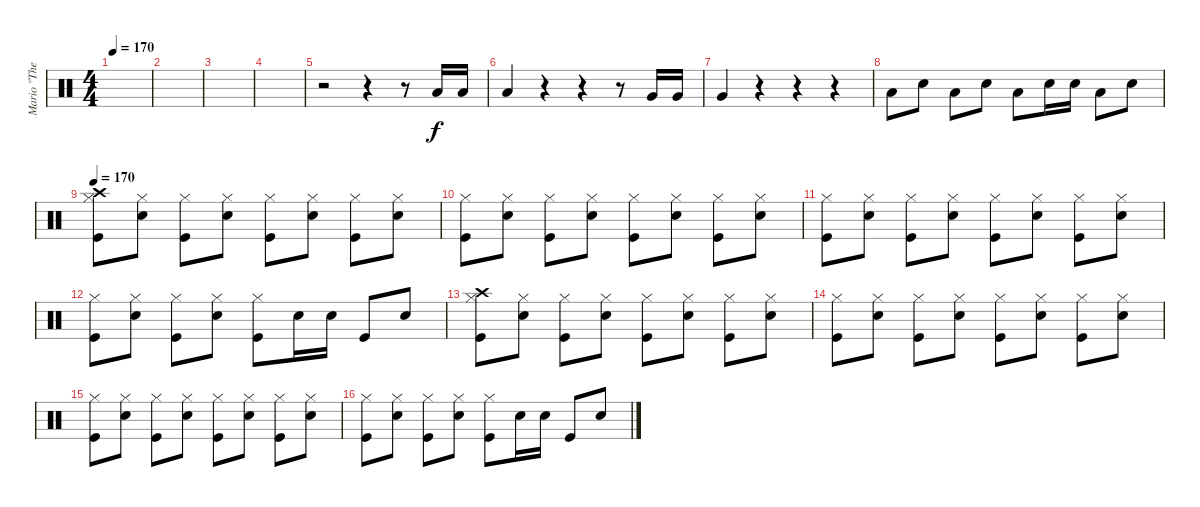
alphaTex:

\track ("Mario \"The Dremmel\" Hirt" "Mario \"The") {instrument percussion}
\staff {score}
\articulation defaults
\ts (4 4)
\tempo 170
\tempo 140
\tempo 170
\clef neutral
\ks c
|
|
|
|
r.2 r.4 r.8 "Low Tom (hit)".16 "Low Tom (hit)".16 |
"Low Tom (hit)".4 r.4 r.4 r.8 "Very Low Tom (hit)".16 "Very Low Tom (hit)".16 |
"Very Low Tom (hit)".4 r.4 r.4 r.4 |
"Low Floor Tom (hit)".8 "Electric Snare (hit)".8 "Low Floor Tom (hit)".8 "Electric Snare (hit)".8 "Low Floor Tom (hit)".8 "Electric Snare (hit)".16 "Electric Snare (hit)".16 "Low Floor Tom (hit)".8 "Electric Snare (hit)".8 |
\tempo 170
("Crash high (hit)" "Hi-Hat (closed)" "Kick (hit)").8 ("Hi-Hat (closed)" "Electric Snare (hit)").8 ("Hi-Hat (closed)" "Kick (hit)").8 ("Hi-Hat (closed)" "Electric Snare (hit)").8 ("Hi-Hat (closed)" "Kick (hit)").8 ("Hi-Hat (closed)" "Electric Snare (hit)").8 ("Hi-Hat (closed)" "Kick (hit)").8 ("Hi-Hat (closed)" "Electric Snare (hit)").8 |
("Hi-Hat (closed)" "Kick (hit)").8 ("Hi-Hat (closed)" "Electric Snare (hit)").8 ("Hi-Hat (closed)" "Kick (hit)").8 ("Hi-Hat (closed)" "Electric Snare (hit)").8 ("Hi-Hat (closed)" "Kick (hit)").8 ("Hi-Hat (closed)" "Electric Snare (hit)").8 ("Hi-Hat (closed)" "Kick (hit)").8 ("Hi-Hat (closed)" "Electric Snare (hit)").8 |
("Hi-Hat (closed)" "Kick (hit)").8 ("Hi-Hat (closed)" "Electric Snare (hit)").8 ("Hi-Hat (closed)" "Kick (hit)").8 ("Hi-Hat (closed)" "Electric Snare (hit)").8 ("Hi-Hat (closed)" "Kick (hit)").8 ("Hi-Hat (closed)" "Electric Snare (hit)").8 ("Hi-Hat (closed)" "Kick (hit)").8 ("Hi-Hat (closed)" "Electric Snare (hit)").8 |
("Hi-Hat (closed)" "Kick (hit)").8 ("Hi-Hat (closed)" "Electric Snare (hit)").8 ("Hi-Hat (closed)" "Kick (hit)").8 ("Hi-Hat (closed)" "Electric Snare (hit)").8 ("Hi-Hat (closed)" "Kick (hit)").8 "Electric Snare (hit)".16 "Electric Snare (hit)".16 "Kick (hit)".8 "Electric Snare (hit)".8 |
("Crash high (hit)" "Hi-Hat (closed)" "Kick (hit)").8 ("Hi-Hat (closed)" "Electric Snare (hit)").8 ("Hi-Hat (closed)" "Kick (hit)").8 ("Hi-Hat (closed)" "Electric Snare (hit)").8 ("Hi-Hat (closed)" "Kick (hit)").8 ("Hi-Hat (closed)" "Electric Snare (hit)").8 ("Hi-Hat (closed)" "Kick (hit)").8 ("Hi-Hat (closed)" "Electric Snare (hit)").8 |
("Hi-Hat (closed)" "Kick (hit)").8 ("Hi-Hat (closed)" "Electric Snare (hit)").8 ("Hi-Hat (closed)" "Kick (hit)").8 ("Hi-Hat (closed)" "Electric Snare (hit)").8 ("Hi-Hat (closed)" "Kick (hit)").8 ("Hi-Hat (closed)" "Electric Snare (hit)").8 ("Hi-Hat (closed)" "Kick (hit)").8 ("Hi-Hat (closed)" "Electric Snare (hit)").8 |
("Hi-Hat (closed)" "Kick (hit)").8 ("Hi-Hat (closed)" "Electric Snare (hit)").8 ("Hi-Hat (closed)" "Kick (hit)").8 ("Hi-Hat (closed)" "Electric Snare (hit)").8 ("Hi-Hat (closed)" "Kick (hit)").8 ("Hi-Hat (closed)" "Electric Snare (hit)").8 ("Hi-Hat (closed)" "Kick (hit)").8 ("Hi-Hat (closed)" "Electric Snare (hit)").8 |
("Hi-Hat (closed)" "Kick (hit)").8 ("Hi-Hat (closed)" "Electric Snare (hit)").8 ("Hi-Hat (closed)" "Kick (hit)").8 ("Hi-Hat (closed)" "Electric Snare (hit)").8 ("Hi-Hat (closed)" "Kick (hit)").8 "Electric Snare (hit)".16 "Electric Snare (hit)".16 "Kick (hit)".8 "Electric Snare (hit)".8
